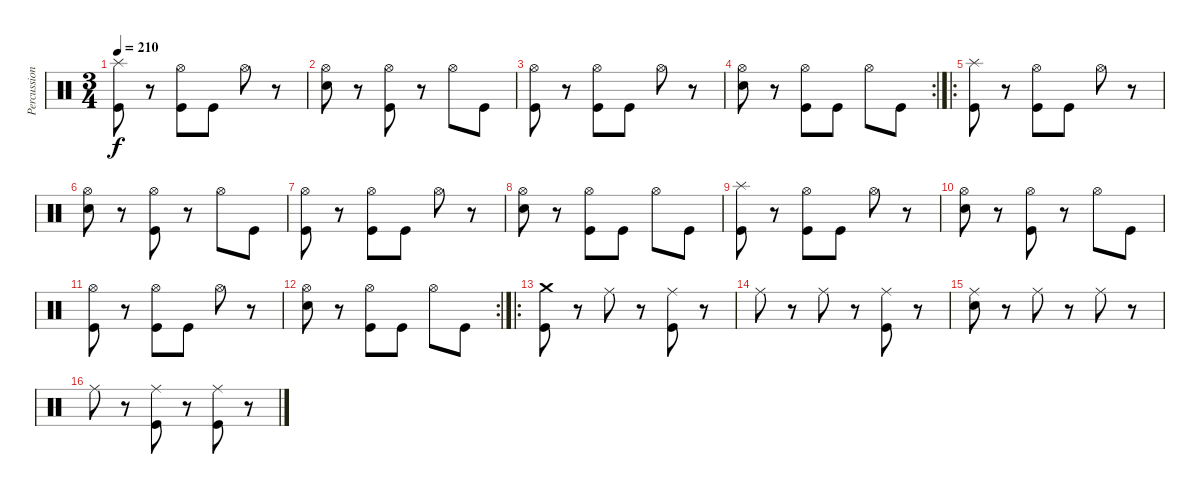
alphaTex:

\track ("Percussion" "Percussion") {instrument percussion}
\staff {score}
\articulation defaults
\ts (3 4)
\tempo 210
\clef neutral
\ks c
("Splash (hit)" "Kick (hit)").8{dy f} r.8 ("Hi-Hat (open)" "Kick (hit)").8 "Kick (hit)".8 "Hi-Hat (open)".8 r.8 |
("Hi-Hat (open)" "Electric Snare (hit)").8 r.8 ("Hi-Hat (open)" "Kick (hit)").8 r.8 "Hi-Hat (open)".8 "Kick (hit)".8 |
("Hi-Hat (open)" "Kick (hit)").8 r.8 ("Hi-Hat (open)" "Kick (hit)").8 "Kick (hit)".8 "Hi-Hat (open)".8 r.8 |
\rc 2
("Hi-Hat (open)" "Electric Snare (hit)").8 r.8 ("Hi-Hat (open)" "Kick (hit)").8 "Kick (hit)".8 "Hi-Hat (open)".8 "Kick (hit)".8 |
\ro
("Splash (hit)" "Kick (hit)").8 r.8 ("Hi-Hat (open)" "Kick (hit)").8 "Kick (hit)".8 "Hi-Hat (open)".8 r.8 |
("Hi-Hat (open)" "Electric Snare (hit)").8 r.8 ("Hi-Hat (open)" "Kick (hit)").8 r.8 "Hi-Hat (open)".8 "Kick (hit)".8 |
("Hi-Hat (open)" "Kick (hit)").8 r.8 ("Hi-Hat (open)" "Kick (hit)").8 "Kick (hit)".8 "Hi-Hat (open)".8 r.8 |
("Hi-Hat (open)" "Electric Snare (hit)").8 r.8 ("Hi-Hat (open)" "Kick (hit)").8 "Kick (hit)".8 "Hi-Hat (open)".8 "Kick (hit)".8 |
("Splash (hit)" "Kick (hit)").8 r.8 ("Hi-Hat (open)" "Kick (hit)").8 "Kick (hit)".8 "Hi-Hat (open)".8 r.8 |
("Hi-Hat (open)" "Electric Snare (hit)").8 r.8 ("Hi-Hat (open)" "Kick (hit)").8 r.8 "Hi-Hat (open)".8 "Kick (hit)".8 |
("Hi-Hat (open)" "Kick (hit)").8 r.8 ("Hi-Hat (open)" "Kick (hit)").8 "Kick (hit)".8 "Hi-Hat (open)".8 r.8 |
\rc 2
("Hi-Hat (open)" "Electric Snare (hit)").8 r.8 ("Hi-Hat (open)" "Kick (hit)").8 "Kick (hit)".8 "Hi-Hat (open)".8 "Kick (hit)".8 |
\ro
("Crash medium (hit)" "Kick (hit)").8 r.8 "Ride (middle)".8 r.8 ("Ride (middle)" "Kick (hit)").8 r.8 |
"Ride (middle)".8 r.8 "Ride (middle)".8 r.8 ("Ride (middle)" "Kick (hit)").8 r.8 |
("Ride (middle)" "Electric Snare (hit)").8 r.8 "Ride (middle)".8 r.8 "Ride (middle)".8 r.8 |
"Ride (middle)".8 r.8 ("Ride (middle)" "Kick (hit)").8 r.8 ("Ride (middle)" "Kick (hit)").8 r.8
